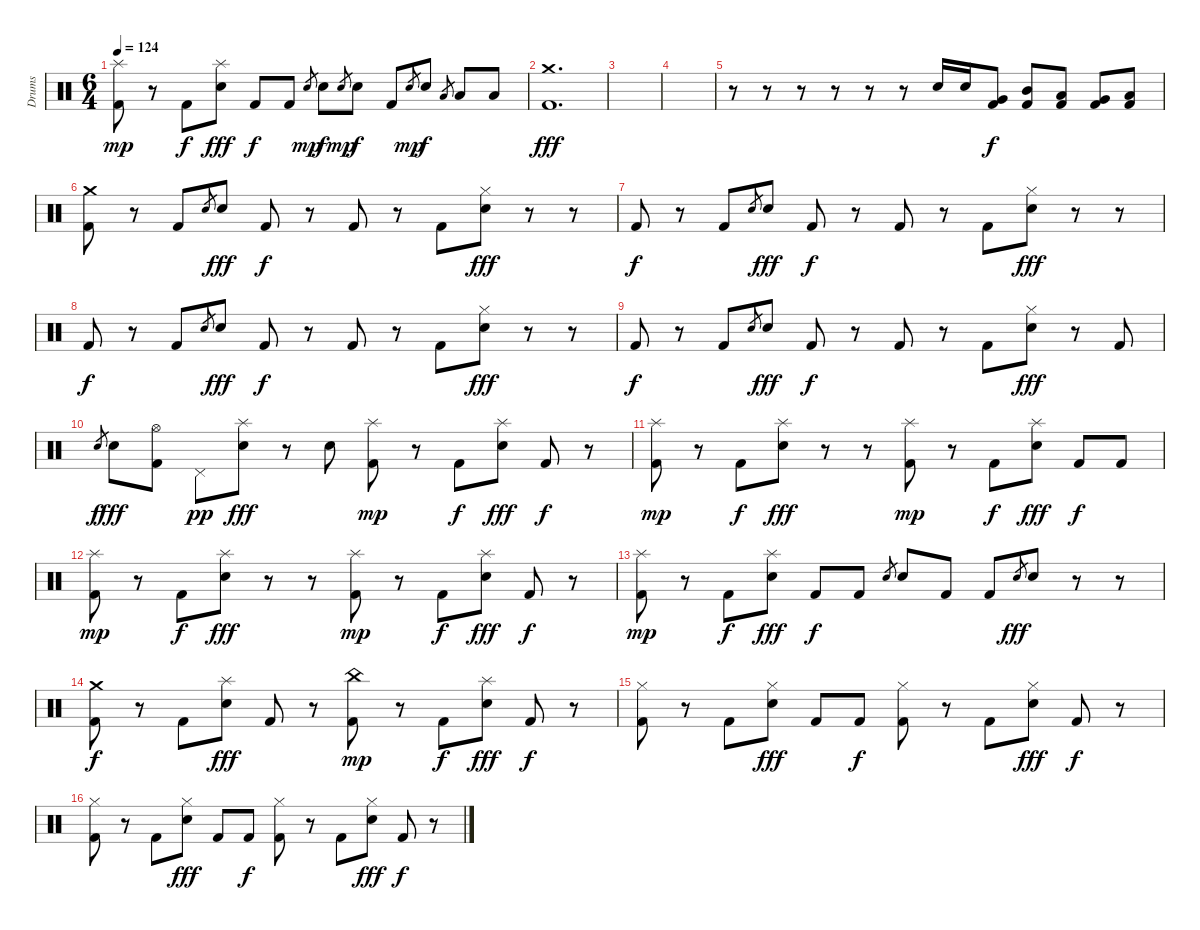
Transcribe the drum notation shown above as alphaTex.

\track ("Drums" "Drums") {instrument percussion}
\staff {score}
\articulation defaults
\ts (6 4)
\tempo 124
\clef neutral
\ks c
("Splash (hit)" "Kick (hit) 2").8{dy mp} r.8 "Kick (hit) 2".8{dy f} ("Splash (hit)" "Electric Snare (hit)").8{dy fff} "Kick (hit) 2".8{dy f} "Kick (hit) 2".8 "Electric Snare (hit)".8{gr dy mp} "Electric Snare (hit)".8{dy f} "Electric Snare (hit)".8{gr dy mp} "Electric Snare (hit)".8{dy f} "Kick (hit) 2".8 "Electric Snare (hit)".8{gr dy mp} "Electric Snare (hit)".8{dy f} "Low Tom (hit)".8{gr} "Low Tom (hit)".8 "Low Floor Tom (hit)".8 |
("Crash medium (hit)" "Kick (hit) 2").1{d dy fff} |
|
|
r.8 r.8 r.8 r.8 r.8 r.8 "Electric Snare (hit)".16 "Electric Snare (hit)".16 ("Very Low Tom (hit)" "Kick (hit) 2").8{dy f} ("Mid Tom (hit)" "Kick (hit) 2").8 ("Low Tom (hit)" "Kick (hit) 2").8 ("Very Low Tom (hit)" "Kick (hit) 2").8 ("Low Floor Tom (hit)" "Kick (hit) 2").8 |
("Crash medium (hit)" "Kick (hit) 2").8 r.8 "Kick (hit) 2".8 "Electric Snare (hit)".8{gr} "Electric Snare (hit)".8{dy fff} "Kick (hit) 2".8{dy f} r.8 "Kick (hit) 2".8 r.8 "Kick (hit) 2".8 ("Hi-Hat (closed)" "Electric Snare (hit)").8{dy fff} r.8 r.8 |
"Kick (hit) 2".8{dy f} r.8 "Kick (hit) 2".8 "Electric Snare (hit)".8{gr} "Electric Snare (hit)".8{dy fff} "Kick (hit) 2".8{dy f} r.8 "Kick (hit) 2".8 r.8 "Kick (hit) 2".8 ("Hi-Hat (closed)" "Electric Snare (hit)").8{dy fff} r.8 r.8 |
"Kick (hit) 2".8{dy f} r.8 "Kick (hit) 2".8 "Electric Snare (hit)".8{gr} "Electric Snare (hit)".8{dy fff} "Kick (hit) 2".8{dy f} r.8 "Kick (hit) 2".8 r.8 "Kick (hit) 2".8 ("Hi-Hat (closed)" "Electric Snare (hit)").8{dy fff} r.8 r.8 |
"Kick (hit) 2".8{dy f} r.8 "Kick (hit) 2".8 "Electric Snare (hit)".8{gr} "Electric Snare (hit)".8{dy fff} "Kick (hit) 2".8{dy f} r.8 "Kick (hit) 2".8 r.8 "Kick (hit) 2".8 ("Hi-Hat (closed)" "Electric Snare (hit)").8{dy fff} r.8 "Kick (hit) 2".8 |
"Electric Snare (hit)".8{gr dy f} "Electric Snare (hit)".8{dy fff} ("Hi-Hat (open)" "Kick (hit) 2").8 "Pedal Hi-Hat (hit)".8{dy pp} ("Splash (hit)" "Electric Snare (hit)").8{dy fff} r.8 "Electric Snare (hit)".8 ("Splash (hit)" "Kick (hit) 2").8{dy mp} r.8 "Kick (hit) 2".8{dy f} ("Splash (hit)" "Electric Snare (hit)").8{dy fff} "Kick (hit) 2".8{dy f} r.8 |
("Splash (hit)" "Kick (hit) 2").8{dy mp} r.8 "Kick (hit) 2".8{dy f} ("Splash (hit)" "Electric Snare (hit)").8{dy fff} r.8 r.8 ("Splash (hit)" "Kick (hit) 2").8{dy mp} r.8 "Kick (hit) 2".8{dy f} ("Splash (hit)" "Electric Snare (hit)").8{dy fff} "Kick (hit) 2".8{dy f} "Kick (hit) 2".8 |
("Splash (hit)" "Kick (hit) 2").8{dy mp} r.8 "Kick (hit) 2".8{dy f} ("Splash (hit)" "Electric Snare (hit)").8{dy fff} r.8 r.8 ("Splash (hit)" "Kick (hit) 2").8{dy mp} r.8 "Kick (hit) 2".8{dy f} ("Splash (hit)" "Electric Snare (hit)").8{dy fff} "Kick (hit) 2".8{dy f} r.8 |
("Splash (hit)" "Kick (hit) 2").8{dy mp} r.8 "Kick (hit) 2".8{dy f} ("Splash (hit)" "Electric Snare (hit)").8{dy fff} "Kick (hit) 2".8{dy f} "Kick (hit) 2".8 "Electric Snare (hit)".8{gr} "Electric Snare (hit)".8 "Kick (hit) 2".8 "Kick (hit) 2".8 "Electric Snare (hit)".8{gr dy fff} "Electric Snare (hit)".8 r.8 r.8 |
("Crash medium (hit)" "Kick (hit) 2").8{dy f} r.8 "Kick (hit) 2".8 ("Splash (hit)" "Electric Snare (hit)").8{dy fff} "Kick (hit) 2".8 r.8 ("China (hit)" "Kick (hit) 2").8{dy mp} r.8 "Kick (hit) 2".8{dy f} ("Splash (hit)" "Electric Snare (hit)").8{dy fff} "Kick (hit) 2".8{dy f} r.8 |
("Hi-Hat (closed)" "Kick (hit) 2").8 r.8 "Kick (hit) 2".8 ("Hi-Hat (closed)" "Electric Snare (hit)").8{dy fff} "Kick (hit) 2".8 "Kick (hit) 2".8{dy f} ("Hi-Hat (closed)" "Kick (hit) 2").8 r.8 "Kick (hit) 2".8 ("Hi-Hat (closed)" "Electric Snare (hit)").8{dy fff} "Kick (hit) 2".8{dy f} r.8 |
("Hi-Hat (closed)" "Kick (hit) 2").8 r.8 "Kick (hit) 2".8 ("Hi-Hat (closed)" "Electric Snare (hit)").8{dy fff} "Kick (hit) 2".8 "Kick (hit) 2".8{dy f} ("Hi-Hat (closed)" "Kick (hit) 2").8 r.8 "Kick (hit) 2".8 ("Hi-Hat (closed)" "Electric Snare (hit)").8{dy fff} "Kick (hit) 2".8{dy f} r.8
